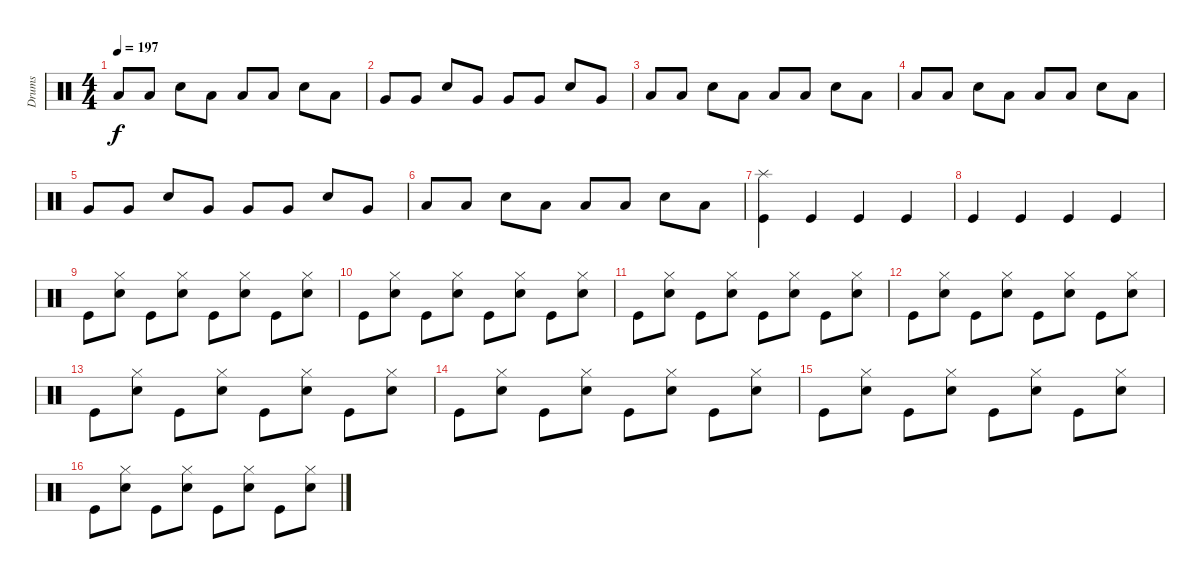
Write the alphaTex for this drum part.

\track ("Drums" "Drums") {instrument percussion}
\staff {score}
\articulation defaults
\ts (4 4)
\tempo 197
\clef neutral
\ks c "Low Tom (hit)".8{dy f} "Low Tom (hit)".8 "Snare (hit) 2".8 "Low Tom (hit)".8 "Low Tom (hit)".8 "Low Tom (hit)".8 "Snare (hit) 2".8 "Low Tom (hit)".8
|
"Very Low Tom (hit)".8 "Very Low Tom (hit)".8 "Snare (hit) 2".8 "Very Low Tom (hit)".8 "Very Low Tom (hit)".8 "Very Low Tom (hit)".8 "Snare (hit) 2".8 "Very Low Tom (hit)".8 |
"Low Tom (hit)".8 "Low Tom (hit)".8 "Snare (hit) 2".8 "Low Tom (hit)".8 "Low Tom (hit)".8 "Low Tom (hit)".8 "Snare (hit) 2".8 "Low Tom (hit)".8 |
"Low Floor Tom (hit)".8 "Low Floor Tom (hit)".8 "Snare (hit) 2".8 "Low Floor Tom (hit)".8 "Low Floor Tom (hit)".8 "Low Floor Tom (hit)".8 "Snare (hit) 2".8 "Low Floor Tom (hit)".8 |
"Very Low Tom (hit)".8 "Very Low Tom (hit)".8 "Snare (hit) 2".8 "Very Low Tom (hit)".8 "Very Low Tom (hit)".8 "Very Low Tom (hit)".8 "Snare (hit) 2".8 "Very Low Tom (hit)".8 |
"Low Tom (hit)".8 "Low Tom (hit)".8 "Snare (hit) 2".8 "Low Tom (hit)".8 "Low Tom (hit)".8 "Low Tom (hit)".8 "Snare (hit) 2".8 "Low Tom (hit)".8 |
("Splash (hit)" "Kick (hit)").4 "Kick (hit)".4 "Kick (hit)".4 "Kick (hit)".4 |
"Kick (hit)".4 "Kick (hit)".4 "Kick (hit)".4 "Kick (hit)".4 |
"Kick (hit)".8 ("Hi-Hat (closed)" "Snare (hit) 2").8 "Kick (hit)".8 ("Hi-Hat (closed)" "Snare (hit) 2").8 "Kick (hit)".8 ("Hi-Hat (closed)" "Snare (hit) 2").8 "Kick (hit)".8 ("Hi-Hat (closed)" "Snare (hit) 2").8 |
"Kick (hit)".8 ("Hi-Hat (closed)" "Snare (hit) 2").8 "Kick (hit)".8 ("Hi-Hat (closed)" "Snare (hit) 2").8 "Kick (hit)".8 ("Hi-Hat (closed)" "Snare (hit) 2").8 "Kick (hit)".8 ("Hi-Hat (closed)" "Snare (hit) 2").8 |
"Kick (hit)".8 ("Hi-Hat (closed)" "Snare (hit) 2").8 "Kick (hit)".8 ("Hi-Hat (closed)" "Snare (hit) 2").8 "Kick (hit)".8 ("Hi-Hat (closed)" "Snare (hit) 2").8 "Kick (hit)".8 ("Hi-Hat (closed)" "Snare (hit) 2").8 |
"Kick (hit)".8 ("Hi-Hat (closed)" "Snare (hit) 2").8 "Kick (hit)".8 ("Hi-Hat (closed)" "Snare (hit) 2").8 "Kick (hit)".8 ("Hi-Hat (closed)" "Snare (hit) 2").8 "Kick (hit)".8 ("Hi-Hat (closed)" "Snare (hit) 2").8 |
"Kick (hit)".8 ("Hi-Hat (closed)" "Snare (hit) 2").8 "Kick (hit)".8 ("Hi-Hat (closed)" "Snare (hit) 2").8 "Kick (hit)".8 ("Hi-Hat (closed)" "Snare (hit) 2").8 "Kick (hit)".8 ("Hi-Hat (closed)" "Snare (hit) 2").8 |
"Kick (hit)".8 ("Hi-Hat (closed)" "Snare (hit) 2").8 "Kick (hit)".8 ("Hi-Hat (closed)" "Snare (hit) 2").8 "Kick (hit)".8 ("Hi-Hat (closed)" "Snare (hit) 2").8 "Kick (hit)".8 ("Hi-Hat (closed)" "Snare (hit) 2").8 |
"Kick (hit)".8 ("Hi-Hat (closed)" "Snare (hit) 2").8 "Kick (hit)".8 ("Hi-Hat (closed)" "Snare (hit) 2").8 "Kick (hit)".8 ("Hi-Hat (closed)" "Snare (hit) 2").8 "Kick (hit)".8 ("Hi-Hat (closed)" "Snare (hit) 2").8 |
"Kick (hit)".8 ("Hi-Hat (closed)" "Snare (hit) 2").8 "Kick (hit)".8 ("Hi-Hat (closed)" "Snare (hit) 2").8 "Kick (hit)".8 ("Hi-Hat (closed)" "Snare (hit) 2").8 "Kick (hit)".8 ("Hi-Hat (closed)" "Snare (hit) 2").8
